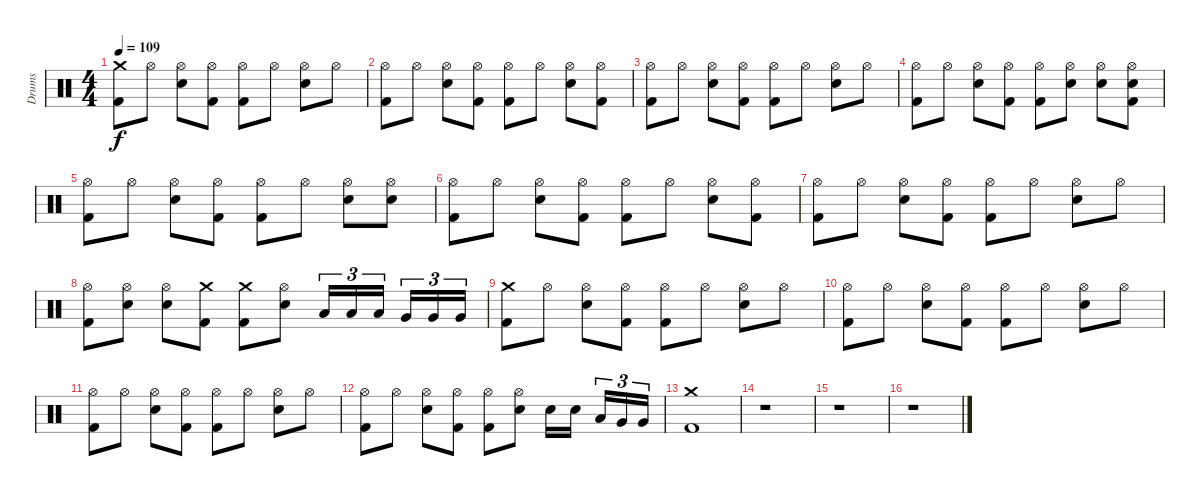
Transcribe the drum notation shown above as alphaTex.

\track ("Drums" "Drums") {instrument percussion}
\staff {score}
\articulation defaults
\ts (4 4)
\tempo 109
\clef neutral
\ks c
("Crash medium (hit)" "Kick (hit) 2").8{dy f} "Hi-Hat (open)".8 ("Hi-Hat (open)" "Electric Snare (hit)").8 ("Hi-Hat (open)" "Kick (hit) 2").8 ("Hi-Hat (open)" "Kick (hit) 2").8 "Hi-Hat (open)".8 ("Hi-Hat (open)" "Electric Snare (hit)").8 "Hi-Hat (open)".8 |
("Hi-Hat (open)" "Kick (hit) 2").8 "Hi-Hat (open)".8 ("Hi-Hat (open)" "Electric Snare (hit)").8 ("Hi-Hat (open)" "Kick (hit) 2").8 ("Hi-Hat (open)" "Kick (hit) 2").8 "Hi-Hat (open)".8 ("Hi-Hat (open)" "Electric Snare (hit)").8 ("Hi-Hat (open)" "Kick (hit) 2").8 |
("Hi-Hat (open)" "Kick (hit) 2").8 "Hi-Hat (open)".8 ("Hi-Hat (open)" "Electric Snare (hit)").8 ("Hi-Hat (open)" "Kick (hit) 2").8 ("Hi-Hat (open)" "Kick (hit) 2").8 "Hi-Hat (open)".8 ("Hi-Hat (open)" "Electric Snare (hit)").8 "Hi-Hat (open)".8 |
("Hi-Hat (open)" "Kick (hit) 2").8 "Hi-Hat (open)".8 ("Hi-Hat (open)" "Electric Snare (hit)").8 ("Hi-Hat (open)" "Kick (hit) 2").8 ("Hi-Hat (open)" "Kick (hit) 2").8 ("Hi-Hat (open)" "Electric Snare (hit)").8 ("Hi-Hat (open)" "Electric Snare (hit)").8 ("Hi-Hat (open)" "Electric Snare (hit)" "Kick (hit) 2").8 |
("Hi-Hat (open)" "Kick (hit) 2").8 "Hi-Hat (open)".8 ("Hi-Hat (open)" "Electric Snare (hit)").8 ("Hi-Hat (open)" "Kick (hit) 2").8 ("Hi-Hat (open)" "Kick (hit) 2").8 "Hi-Hat (open)".8 ("Hi-Hat (open)" "Electric Snare (hit)").8 ("Hi-Hat (open)" "Electric Snare (hit)").8 |
("Hi-Hat (open)" "Kick (hit) 2").8 "Hi-Hat (open)".8 ("Hi-Hat (open)" "Electric Snare (hit)").8 ("Hi-Hat (open)" "Kick (hit) 2").8 ("Hi-Hat (open)" "Kick (hit) 2").8 "Hi-Hat (open)".8 ("Hi-Hat (open)" "Electric Snare (hit)").8 ("Hi-Hat (open)" "Kick (hit) 2").8 |
("Hi-Hat (open)" "Kick (hit) 2").8 "Hi-Hat (open)".8 ("Hi-Hat (open)" "Electric Snare (hit)").8 ("Hi-Hat (open)" "Kick (hit) 2").8 ("Hi-Hat (open)" "Kick (hit) 2").8 "Hi-Hat (open)".8 ("Hi-Hat (open)" "Electric Snare (hit)").8 "Hi-Hat (open)".8 |
("Hi-Hat (open)" "Kick (hit) 2").8 ("Hi-Hat (open)" "Electric Snare (hit)").8 ("Hi-Hat (open)" "Electric Snare (hit)").8 ("Crash medium (hit)" "Kick (hit) 2").8 ("Crash medium (hit)" "Kick (hit) 2").8 ("Hi-Hat (open)" "Electric Snare (hit)").8 "Low Tom (hit)".16{tu (3 2)} "Low Tom (hit)".16{tu (3 2)} "Low Tom (hit)".16{tu (3 2)} "Very Low Tom (hit)".16{tu (3 2)} "Very Low Tom (hit)".16{tu (3 2)} "Very Low Tom (hit)".16{tu (3 2)} |
("Crash medium (hit)" "Kick (hit) 2").8 "Hi-Hat (open)".8 ("Hi-Hat (open)" "Electric Snare (hit)").8 ("Hi-Hat (open)" "Kick (hit) 2").8 ("Hi-Hat (open)" "Kick (hit) 2").8 "Hi-Hat (open)".8 ("Hi-Hat (open)" "Electric Snare (hit)").8 "Hi-Hat (open)".8 |
("Hi-Hat (open)" "Kick (hit) 2").8 "Hi-Hat (open)".8 ("Hi-Hat (open)" "Electric Snare (hit)").8 ("Hi-Hat (open)" "Kick (hit) 2").8 ("Hi-Hat (open)" "Kick (hit) 2").8 "Hi-Hat (open)".8 ("Hi-Hat (open)" "Electric Snare (hit)").8 "Hi-Hat (open)".8 |
("Hi-Hat (open)" "Kick (hit) 2").8 "Hi-Hat (open)".8 ("Hi-Hat (open)" "Electric Snare (hit)").8 ("Hi-Hat (open)" "Kick (hit) 2").8 ("Hi-Hat (open)" "Kick (hit) 2").8 "Hi-Hat (open)".8 ("Hi-Hat (open)" "Electric Snare (hit)").8 "Hi-Hat (open)".8 |
("Hi-Hat (open)" "Kick (hit) 2").8 "Hi-Hat (open)".8 ("Hi-Hat (open)" "Electric Snare (hit)").8 ("Hi-Hat (open)" "Kick (hit) 2").8 ("Hi-Hat (open)" "Kick (hit) 2").8 ("Hi-Hat (open)" "Electric Snare (hit)").8 "Electric Snare (hit)".16 "Electric Snare (hit)".16 "Low Tom (hit)".16{tu (3 2)} "Very Low Tom (hit)".16{tu (3 2)} "Very Low Tom (hit)".16{tu (3 2)} |
("Crash medium (hit)" "Kick (hit) 2").1 |
r.1 |
r.1 |
r.1
